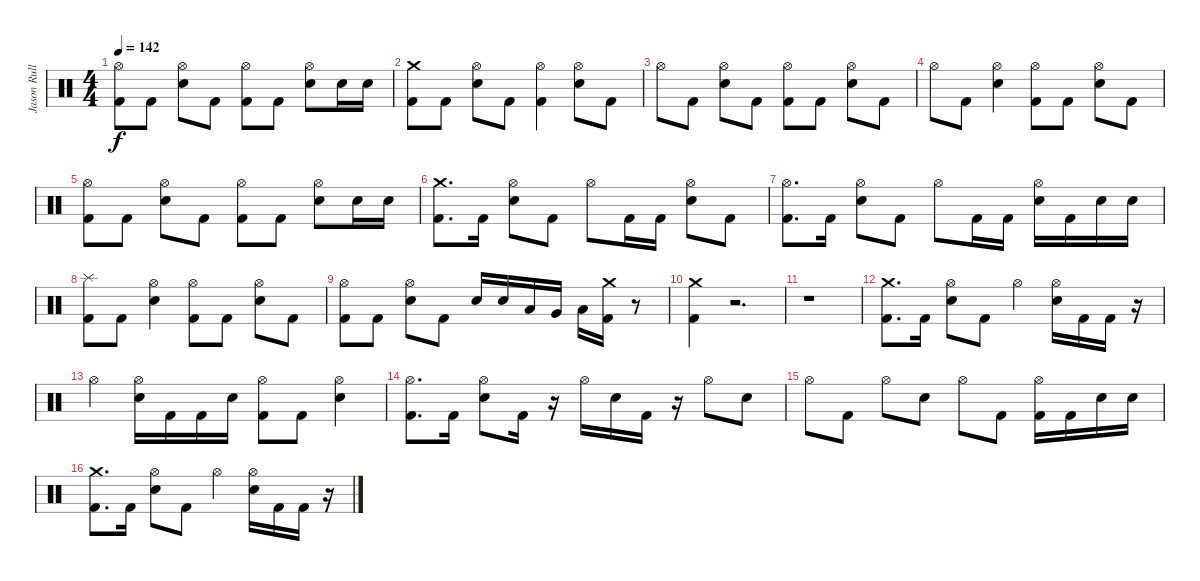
\track ("Jason Rullo (drums)" "Jason Rull") {solo instrument percussion}
\staff {score}
\articulation defaults
\ts (4 4)
\tempo 142
\clef neutral
\ks c
("Hi-Hat (open)" "Kick (hit) 2").8{dy f} "Kick (hit) 2".8 ("Hi-Hat (open)" "Electric Snare (hit)").8 "Kick (hit) 2".8 ("Hi-Hat (open)" "Kick (hit) 2").8 "Kick (hit) 2".8 ("Hi-Hat (open)" "Electric Snare (hit)").8 "Electric Snare (hit)".16 "Electric Snare (hit)".16 |
("Crash medium (hit)" "Kick (hit) 2").8 "Kick (hit) 2".8 ("Hi-Hat (open)" "Electric Snare (hit)").8 "Kick (hit) 2".8 ("Hi-Hat (open)" "Kick (hit) 2").4 ("Hi-Hat (open)" "Electric Snare (hit)").8 "Kick (hit) 2".8 |
"Hi-Hat (open)".8 "Kick (hit) 2".8 ("Hi-Hat (open)" "Electric Snare (hit)").8 "Kick (hit) 2".8 ("Hi-Hat (open)" "Kick (hit) 2").8 "Kick (hit) 2".8 ("Hi-Hat (open)" "Electric Snare (hit)").8 "Kick (hit) 2".8 |
"Hi-Hat (open)".8 "Kick (hit) 2".8 ("Hi-Hat (open)" "Electric Snare (hit)").4 ("Hi-Hat (open)" "Kick (hit) 2").8 "Kick (hit) 2".8 ("Hi-Hat (open)" "Electric Snare (hit)").8 "Kick (hit) 2".8 |
("Hi-Hat (open)" "Kick (hit) 2").8 "Kick (hit) 2".8 ("Hi-Hat (open)" "Electric Snare (hit)").8 "Kick (hit) 2".8 ("Hi-Hat (open)" "Kick (hit) 2").8 "Kick (hit) 2".8 ("Hi-Hat (open)" "Electric Snare (hit)").8 "Electric Snare (hit)".16 "Electric Snare (hit)".16 |
("Crash medium (hit)" "Kick (hit) 2").8{d} "Kick (hit) 2".16 ("Hi-Hat (open)" "Electric Snare (hit)").8 "Kick (hit) 2".8 "Hi-Hat (open)".8 "Kick (hit) 2".16 "Kick (hit) 2".16 ("Hi-Hat (open)" "Electric Snare (hit)").8 "Kick (hit) 2".8 |
("Hi-Hat (open)" "Kick (hit) 2").8{d} "Kick (hit) 2".16 ("Hi-Hat (open)" "Electric Snare (hit)").8 "Kick (hit) 2".8 "Hi-Hat (open)".8 "Kick (hit) 2".16 "Kick (hit) 2".16 ("Hi-Hat (open)" "Electric Snare (hit)").16 "Kick (hit) 2".16 "Electric Snare (hit)".16 "Electric Snare (hit)".16 |
("Splash (hit)" "Kick (hit) 2").8 "Kick (hit) 2".8 ("Hi-Hat (open)" "Electric Snare (hit)").4 ("Hi-Hat (open)" "Kick (hit) 2").8 "Kick (hit) 2".8 ("Hi-Hat (open)" "Electric Snare (hit)").8 "Kick (hit) 2".8 |
("Hi-Hat (open)" "Kick (hit) 2").8 "Kick (hit) 2".8 ("Hi-Hat (open)" "Electric Snare (hit)").8 "Kick (hit) 2".8 "Electric Snare (hit)".16 "Electric Snare (hit)".16 "Low Tom (hit)".16 "Very Low Tom (hit)".16 "Low Floor Tom (hit)".16 ("Crash medium (hit)" "Kick (hit) 2").16 r.8 |
("Crash medium (hit)" "Kick (hit) 2").4 r.2{d} |
r.1 |
("Crash medium (hit)" "Kick (hit) 2").8{d volume 16 balance 8} "Kick (hit) 2".16 ("Hi-Hat (open)" "Electric Snare (hit)").8 "Kick (hit) 2".8 "Hi-Hat (open)".4 ("Hi-Hat (open)" "Electric Snare (hit)").16 "Kick (hit) 2".16 "Kick (hit) 2".16 r.16 |
"Hi-Hat (open)".4 ("Hi-Hat (open)" "Electric Snare (hit)").16 "Kick (hit) 2".16 "Kick (hit) 2".16 "Electric Snare (hit)".16 ("Hi-Hat (open)" "Kick (hit) 2").8 "Kick (hit) 2".8 ("Hi-Hat (open)" "Electric Snare (hit)").4 |
("Hi-Hat (open)" "Kick (hit) 2").8{d} "Kick (hit) 2".16 ("Hi-Hat (open)" "Electric Snare (hit)").8 "Kick (hit) 2".16 r.16 "Hi-Hat (open)".16 "Electric Snare (hit)".16 "Kick (hit) 2".16 r.16 "Hi-Hat (open)".8 "Electric Snare (hit)".8 |
"Hi-Hat (open)".8 "Kick (hit) 2".8 "Hi-Hat (open)".8 "Electric Snare (hit)".8 "Hi-Hat (open)".8 "Kick (hit) 2".8 ("Hi-Hat (open)" "Kick (hit) 2").16 "Kick (hit) 2".16 "Electric Snare (hit)".16 "Electric Snare (hit)".16 |
("Crash medium (hit)" "Kick (hit) 2").8{d} "Kick (hit) 2".16 ("Hi-Hat (open)" "Electric Snare (hit)").8 "Kick (hit) 2".8 "Hi-Hat (open)".4 ("Hi-Hat (open)" "Electric Snare (hit)").16 "Kick (hit) 2".16 "Kick (hit) 2".16 r.16
